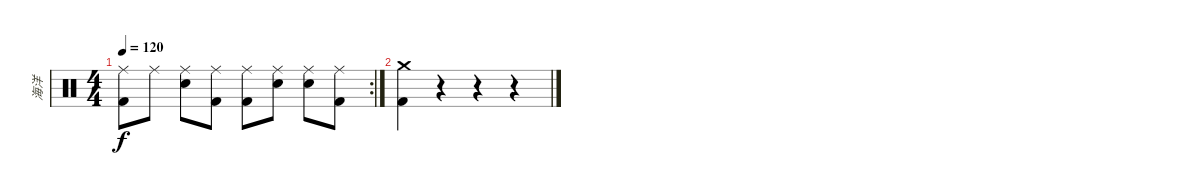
\track ("海洋" "海洋") {instrument percussion}
\staff {score}
\articulation defaults
\rc 2
\ts (4 4)
\tempo 120
\clef neutral
\ks c
("Ride (middle)" "Kick (hit) 2").8{dy f} "Ride (middle)".8 ("Ride (middle)" "Electric Snare (hit)").8 ("Ride (middle)" "Kick (hit) 2").8 ("Ride (middle)" "Kick (hit) 2").8 ("Ride (middle)" "Electric Snare (hit)").8 ("Ride (middle)" "Electric Snare (hit)").8 ("Ride (middle)" "Kick (hit) 2").8 |
("Crash medium (hit)" "Kick (hit) 2").4 r.4 r.4 r.4
